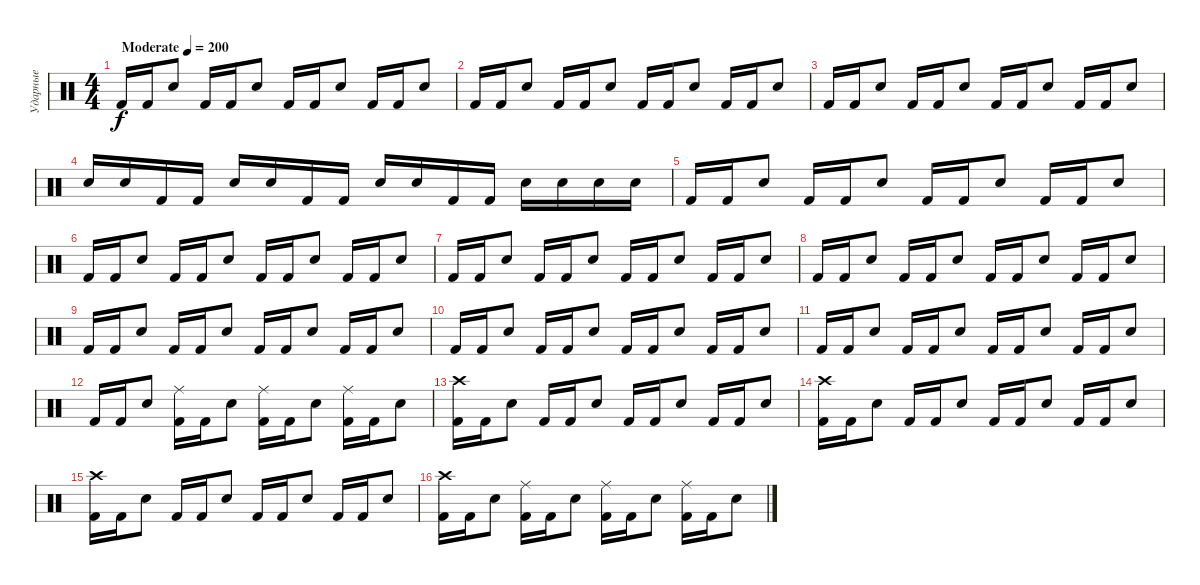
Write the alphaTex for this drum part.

\track ("Ударные" "Ударные") {instrument percussion}
\staff {score}
\articulation defaults
\ts (4 4)
\tempo (200 "Moderate")
\clef neutral
\ks c "Kick (hit) 2".16{dy f} "Kick (hit) 2".16 "Electric Snare (hit)".8 "Kick (hit) 2".16 "Kick (hit) 2".16 "Electric Snare (hit)".8 "Kick (hit) 2".16 "Kick (hit) 2".16 "Electric Snare (hit)".8 "Kick (hit) 2".16 "Kick (hit) 2".16 "Electric Snare (hit)".8
|
"Kick (hit) 2".16 "Kick (hit) 2".16 "Electric Snare (hit)".8 "Kick (hit) 2".16 "Kick (hit) 2".16 "Electric Snare (hit)".8 "Kick (hit) 2".16 "Kick (hit) 2".16 "Electric Snare (hit)".8 "Kick (hit) 2".16 "Kick (hit) 2".16 "Electric Snare (hit)".8 |
"Kick (hit) 2".16 "Kick (hit) 2".16 "Electric Snare (hit)".8 "Kick (hit) 2".16 "Kick (hit) 2".16 "Electric Snare (hit)".8 "Kick (hit) 2".16 "Kick (hit) 2".16 "Electric Snare (hit)".8 "Kick (hit) 2".16 "Kick (hit) 2".16 "Electric Snare (hit)".8 |
"Electric Snare (hit)".16 "Electric Snare (hit)".16 "Kick (hit) 2".16 "Kick (hit) 2".16 "Electric Snare (hit)".16 "Electric Snare (hit)".16 "Kick (hit) 2".16 "Kick (hit) 2".16 "Electric Snare (hit)".16 "Electric Snare (hit)".16 "Kick (hit) 2".16 "Kick (hit) 2".16 "Electric Snare (hit)".16 "Electric Snare (hit)".16 "Electric Snare (hit)".16 "Electric Snare (hit)".16 |
"Kick (hit) 2".16 "Kick (hit) 2".16 "Electric Snare (hit)".8 "Kick (hit) 2".16 "Kick (hit) 2".16 "Electric Snare (hit)".8 "Kick (hit) 2".16 "Kick (hit) 2".16 "Electric Snare (hit)".8 "Kick (hit) 2".16 "Kick (hit) 2".16 "Electric Snare (hit)".8 |
"Kick (hit) 2".16 "Kick (hit) 2".16 "Electric Snare (hit)".8 "Kick (hit) 2".16 "Kick (hit) 2".16 "Electric Snare (hit)".8 "Kick (hit) 2".16 "Kick (hit) 2".16 "Electric Snare (hit)".8 "Kick (hit) 2".16 "Kick (hit) 2".16 "Electric Snare (hit)".8 |
"Kick (hit) 2".16 "Kick (hit) 2".16 "Electric Snare (hit)".8 "Kick (hit) 2".16 "Kick (hit) 2".16 "Electric Snare (hit)".8 "Kick (hit) 2".16 "Kick (hit) 2".16 "Electric Snare (hit)".8 "Kick (hit) 2".16 "Kick (hit) 2".16 "Electric Snare (hit)".8 |
"Kick (hit) 2".16 "Kick (hit) 2".16 "Electric Snare (hit)".8 "Kick (hit) 2".16 "Kick (hit) 2".16 "Electric Snare (hit)".8 "Kick (hit) 2".16 "Kick (hit) 2".16 "Electric Snare (hit)".8 "Kick (hit) 2".16 "Kick (hit) 2".16 "Electric Snare (hit)".8 |
"Kick (hit) 2".16 "Kick (hit) 2".16 "Electric Snare (hit)".8 "Kick (hit) 2".16 "Kick (hit) 2".16 "Electric Snare (hit)".8 "Kick (hit) 2".16 "Kick (hit) 2".16 "Electric Snare (hit)".8 "Kick (hit) 2".16 "Kick (hit) 2".16 "Electric Snare (hit)".8 |
"Kick (hit) 2".16 "Kick (hit) 2".16 "Electric Snare (hit)".8 "Kick (hit) 2".16 "Kick (hit) 2".16 "Electric Snare (hit)".8 "Kick (hit) 2".16 "Kick (hit) 2".16 "Electric Snare (hit)".8 "Kick (hit) 2".16 "Kick (hit) 2".16 "Electric Snare (hit)".8 |
"Kick (hit) 2".16 "Kick (hit) 2".16 "Electric Snare (hit)".8 "Kick (hit) 2".16 "Kick (hit) 2".16 "Electric Snare (hit)".8 "Kick (hit) 2".16 "Kick (hit) 2".16 "Electric Snare (hit)".8 "Kick (hit) 2".16 "Kick (hit) 2".16 "Electric Snare (hit)".8 |
"Kick (hit) 2".16 "Kick (hit) 2".16 "Electric Snare (hit)".8 ("Kick (hit) 2" "Ride (middle)").16 "Kick (hit) 2".16 "Electric Snare (hit)".8 ("Kick (hit) 2" "Ride (middle)").16 "Kick (hit) 2".16 "Electric Snare (hit)".8 ("Kick (hit) 2" "Ride (middle)").16 "Kick (hit) 2".16 "Electric Snare (hit)".8 |
("Kick (hit) 2" "Crash high (hit)").16 "Kick (hit) 2".16 "Electric Snare (hit)".8 "Kick (hit) 2".16 "Kick (hit) 2".16 "Electric Snare (hit)".8 "Kick (hit) 2".16 "Kick (hit) 2".16 "Electric Snare (hit)".8 "Kick (hit) 2".16 "Kick (hit) 2".16 "Electric Snare (hit)".8 |
("Kick (hit) 2" "Crash high (hit)").16 "Kick (hit) 2".16 "Electric Snare (hit)".8 "Kick (hit) 2".16 "Kick (hit) 2".16 "Electric Snare (hit)".8 "Kick (hit) 2".16 "Kick (hit) 2".16 "Electric Snare (hit)".8 "Kick (hit) 2".16 "Kick (hit) 2".16 "Electric Snare (hit)".8 |
("Kick (hit) 2" "Crash high (hit)").16 "Kick (hit) 2".16 "Electric Snare (hit)".8 "Kick (hit) 2".16 "Kick (hit) 2".16 "Electric Snare (hit)".8 "Kick (hit) 2".16 "Kick (hit) 2".16 "Electric Snare (hit)".8 "Kick (hit) 2".16 "Kick (hit) 2".16 "Electric Snare (hit)".8 |
("Kick (hit) 2" "Crash high (hit)").16 "Kick (hit) 2".16 "Electric Snare (hit)".8 ("Kick (hit) 2" "Ride (middle)").16 "Kick (hit) 2".16 "Electric Snare (hit)".8 ("Kick (hit) 2" "Ride (middle)").16 "Kick (hit) 2".16 "Electric Snare (hit)".8 ("Kick (hit) 2" "Ride (middle)").16 "Kick (hit) 2".16 "Electric Snare (hit)".8
